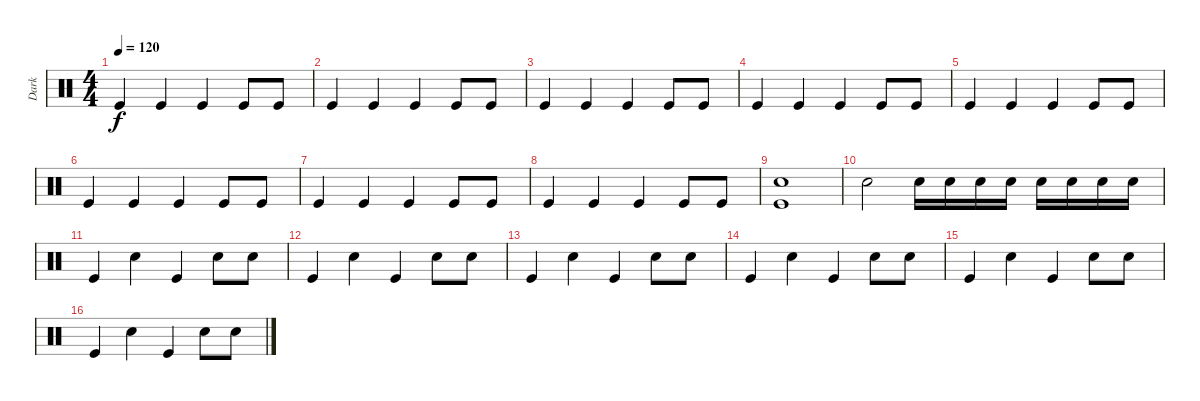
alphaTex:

\track ("Dark" "Dark") {instrument percussion}
\staff {score}
\articulation defaults
\ts (4 4)
\tempo 120
\clef neutral
\ks c "Kick (hit)".4{dy f} "Kick (hit)".4 "Kick (hit)".4 "Kick (hit)".8 "Kick (hit)".8
|
"Kick (hit)".4 "Kick (hit)".4 "Kick (hit)".4 "Kick (hit)".8 "Kick (hit)".8 |
"Kick (hit)".4 "Kick (hit)".4 "Kick (hit)".4 "Kick (hit)".8 "Kick (hit)".8 |
"Kick (hit)".4 "Kick (hit)".4 "Kick (hit)".4 "Kick (hit)".8 "Kick (hit)".8 |
"Kick (hit)".4 "Kick (hit)".4 "Kick (hit)".4 "Kick (hit)".8 "Kick (hit)".8 |
"Kick (hit)".4 "Kick (hit)".4 "Kick (hit)".4 "Kick (hit)".8 "Kick (hit)".8 |
"Kick (hit)".4 "Kick (hit)".4 "Kick (hit)".4 "Kick (hit)".8 "Kick (hit)".8 |
"Kick (hit)".4 "Kick (hit)".4 "Kick (hit)".4 "Kick (hit)".8 "Kick (hit)".8 |
("Snare (hit) 2" "Kick (hit)").1 |
"Snare (hit) 2".2 "Snare (hit) 2".16 "Snare (hit) 2".16 "Snare (hit) 2".16 "Snare (hit) 2".16 "Snare (hit) 2".16 "Snare (hit) 2".16 "Snare (hit) 2".16 "Snare (hit) 2".16 |
"Kick (hit)".4 "Snare (hit) 2".4 "Kick (hit)".4 "Snare (hit) 2".8 "Snare (hit) 2".8 |
"Kick (hit)".4 "Snare (hit) 2".4 "Kick (hit)".4 "Snare (hit) 2".8 "Snare (hit) 2".8 |
"Kick (hit)".4 "Snare (hit) 2".4 "Kick (hit)".4 "Snare (hit) 2".8 "Snare (hit) 2".8 |
"Kick (hit)".4 "Snare (hit) 2".4 "Kick (hit)".4 "Snare (hit) 2".8 "Snare (hit) 2".8 |
"Kick (hit)".4 "Snare (hit) 2".4 "Kick (hit)".4 "Snare (hit) 2".8 "Snare (hit) 2".8 |
"Kick (hit)".4 "Snare (hit) 2".4 "Kick (hit)".4 "Snare (hit) 2".8 "Snare (hit) 2".8
